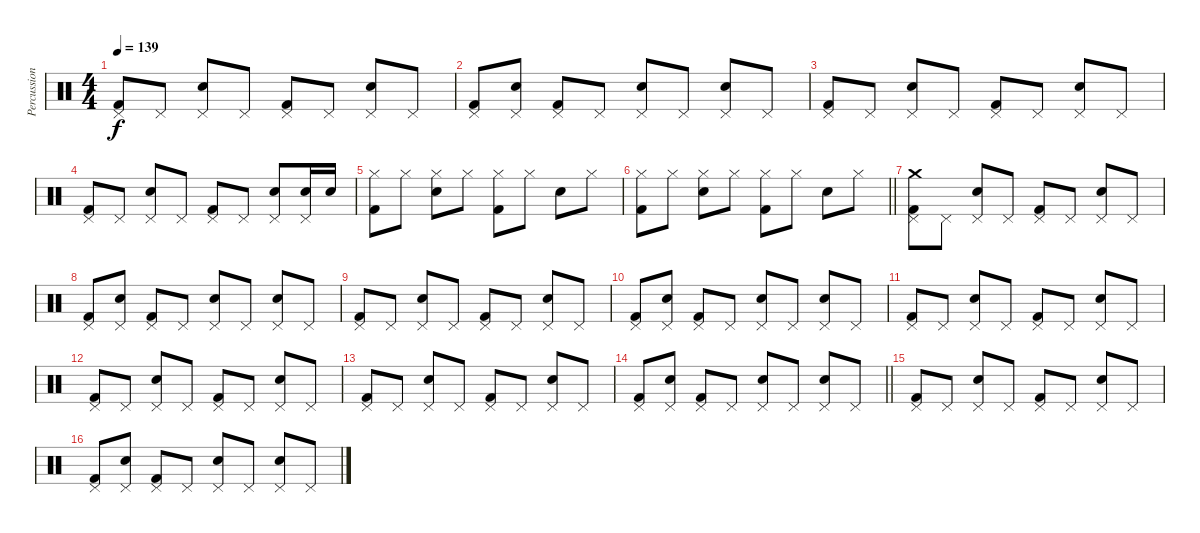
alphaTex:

\track ("Percussion" "Percussion") {instrument percussion}
\staff {score}
\articulation defaults
\ts (4 4)
\tempo 139
\clef neutral
\ks c
("Kick (hit) 2" "Pedal Hi-Hat (hit)").8{dy f} "Pedal Hi-Hat (hit)".8 ("Snare (hit) 2" "Pedal Hi-Hat (hit)").8 "Pedal Hi-Hat (hit)".8 ("Kick (hit) 2" "Pedal Hi-Hat (hit)").8 "Pedal Hi-Hat (hit)".8 ("Snare (hit) 2" "Pedal Hi-Hat (hit)").8 "Pedal Hi-Hat (hit)".8 |
("Kick (hit) 2" "Pedal Hi-Hat (hit)").8 ("Snare (hit) 2" "Pedal Hi-Hat (hit)").8 ("Kick (hit) 2" "Pedal Hi-Hat (hit)").8 "Pedal Hi-Hat (hit)".8 ("Snare (hit) 2" "Pedal Hi-Hat (hit)").8 "Pedal Hi-Hat (hit)".8 ("Snare (hit) 2" "Pedal Hi-Hat (hit)").8 "Pedal Hi-Hat (hit)".8 |
("Kick (hit) 2" "Pedal Hi-Hat (hit)").8 "Pedal Hi-Hat (hit)".8 ("Snare (hit) 2" "Pedal Hi-Hat (hit)").8 "Pedal Hi-Hat (hit)".8 ("Kick (hit) 2" "Pedal Hi-Hat (hit)").8 "Pedal Hi-Hat (hit)".8 ("Snare (hit) 2" "Pedal Hi-Hat (hit)").8 "Pedal Hi-Hat (hit)".8 |
("Kick (hit) 2" "Pedal Hi-Hat (hit)").8 "Pedal Hi-Hat (hit)".8 ("Snare (hit) 2" "Pedal Hi-Hat (hit)").8 "Pedal Hi-Hat (hit)".8 ("Kick (hit) 2" "Pedal Hi-Hat (hit)").8 "Pedal Hi-Hat (hit)".8 ("Snare (hit) 2" "Pedal Hi-Hat (hit)").8 ("Snare (hit) 2" "Pedal Hi-Hat (hit)").16 "Snare (hit) 2".16 |
("Kick (hit) 2" "Hi-Hat (closed)").8 "Hi-Hat (closed)".8 ("Snare (hit) 2" "Hi-Hat (closed)").8 "Hi-Hat (closed)".8 ("Kick (hit) 2" "Hi-Hat (closed)").8 "Hi-Hat (closed)".8 "Snare (hit) 2".8 "Hi-Hat (closed)".8 |
\barLineRight lightlight
("Kick (hit) 2" "Hi-Hat (closed)").8 "Hi-Hat (closed)".8 ("Snare (hit) 2" "Hi-Hat (closed)").8 "Hi-Hat (closed)".8 ("Kick (hit) 2" "Hi-Hat (closed)").8 "Hi-Hat (closed)".8 "Snare (hit) 2".8 "Hi-Hat (closed)".8 |
("Crash medium (hit)" "Kick (hit) 2" "Pedal Hi-Hat (hit)").8 "Pedal Hi-Hat (hit)".8 ("Snare (hit) 2" "Pedal Hi-Hat (hit)").8 "Pedal Hi-Hat (hit)".8 ("Kick (hit) 2" "Pedal Hi-Hat (hit)").8 "Pedal Hi-Hat (hit)".8 ("Snare (hit) 2" "Pedal Hi-Hat (hit)").8 "Pedal Hi-Hat (hit)".8 |
("Kick (hit) 2" "Pedal Hi-Hat (hit)").8 ("Snare (hit) 2" "Pedal Hi-Hat (hit)").8 ("Kick (hit) 2" "Pedal Hi-Hat (hit)").8 "Pedal Hi-Hat (hit)".8 ("Snare (hit) 2" "Pedal Hi-Hat (hit)").8 "Pedal Hi-Hat (hit)".8 ("Snare (hit) 2" "Pedal Hi-Hat (hit)").8 "Pedal Hi-Hat (hit)".8 |
("Kick (hit) 2" "Pedal Hi-Hat (hit)").8 "Pedal Hi-Hat (hit)".8 ("Snare (hit) 2" "Pedal Hi-Hat (hit)").8 "Pedal Hi-Hat (hit)".8 ("Kick (hit) 2" "Pedal Hi-Hat (hit)").8 "Pedal Hi-Hat (hit)".8 ("Snare (hit) 2" "Pedal Hi-Hat (hit)").8 "Pedal Hi-Hat (hit)".8 |
("Kick (hit) 2" "Pedal Hi-Hat (hit)").8 ("Snare (hit) 2" "Pedal Hi-Hat (hit)").8 ("Kick (hit) 2" "Pedal Hi-Hat (hit)").8 "Pedal Hi-Hat (hit)".8 ("Snare (hit) 2" "Pedal Hi-Hat (hit)").8 "Pedal Hi-Hat (hit)".8 ("Snare (hit) 2" "Pedal Hi-Hat (hit)").8 "Pedal Hi-Hat (hit)".8 |
("Kick (hit) 2" "Pedal Hi-Hat (hit)").8 "Pedal Hi-Hat (hit)".8 ("Snare (hit) 2" "Pedal Hi-Hat (hit)").8 "Pedal Hi-Hat (hit)".8 ("Kick (hit) 2" "Pedal Hi-Hat (hit)").8 "Pedal Hi-Hat (hit)".8 ("Snare (hit) 2" "Pedal Hi-Hat (hit)").8 "Pedal Hi-Hat (hit)".8 |
("Kick (hit) 2" "Pedal Hi-Hat (hit)").8 "Pedal Hi-Hat (hit)".8 ("Snare (hit) 2" "Pedal Hi-Hat (hit)").8 "Pedal Hi-Hat (hit)".8 ("Kick (hit) 2" "Pedal Hi-Hat (hit)").8 "Pedal Hi-Hat (hit)".8 ("Snare (hit) 2" "Pedal Hi-Hat (hit)").8 "Pedal Hi-Hat (hit)".8 |
("Kick (hit) 2" "Pedal Hi-Hat (hit)").8 "Pedal Hi-Hat (hit)".8 ("Snare (hit) 2" "Pedal Hi-Hat (hit)").8 "Pedal Hi-Hat (hit)".8 ("Kick (hit) 2" "Pedal Hi-Hat (hit)").8 "Pedal Hi-Hat (hit)".8 ("Snare (hit) 2" "Pedal Hi-Hat (hit)").8 "Pedal Hi-Hat (hit)".8 |
\barLineRight lightlight
("Kick (hit) 2" "Pedal Hi-Hat (hit)").8 ("Snare (hit) 2" "Pedal Hi-Hat (hit)").8 ("Kick (hit) 2" "Pedal Hi-Hat (hit)").8 "Pedal Hi-Hat (hit)".8 ("Snare (hit) 2" "Pedal Hi-Hat (hit)").8 "Pedal Hi-Hat (hit)".8 ("Snare (hit) 2" "Pedal Hi-Hat (hit)").8 "Pedal Hi-Hat (hit)".8 |
("Kick (hit) 2" "Pedal Hi-Hat (hit)").8 "Pedal Hi-Hat (hit)".8 ("Snare (hit) 2" "Pedal Hi-Hat (hit)").8 "Pedal Hi-Hat (hit)".8 ("Kick (hit) 2" "Pedal Hi-Hat (hit)").8 "Pedal Hi-Hat (hit)".8 ("Snare (hit) 2" "Pedal Hi-Hat (hit)").8 "Pedal Hi-Hat (hit)".8 |
("Kick (hit) 2" "Pedal Hi-Hat (hit)").8 ("Snare (hit) 2" "Pedal Hi-Hat (hit)").8 ("Kick (hit) 2" "Pedal Hi-Hat (hit)").8 "Pedal Hi-Hat (hit)".8 ("Snare (hit) 2" "Pedal Hi-Hat (hit)").8 "Pedal Hi-Hat (hit)".8 ("Snare (hit) 2" "Pedal Hi-Hat (hit)").8 "Pedal Hi-Hat (hit)".8
